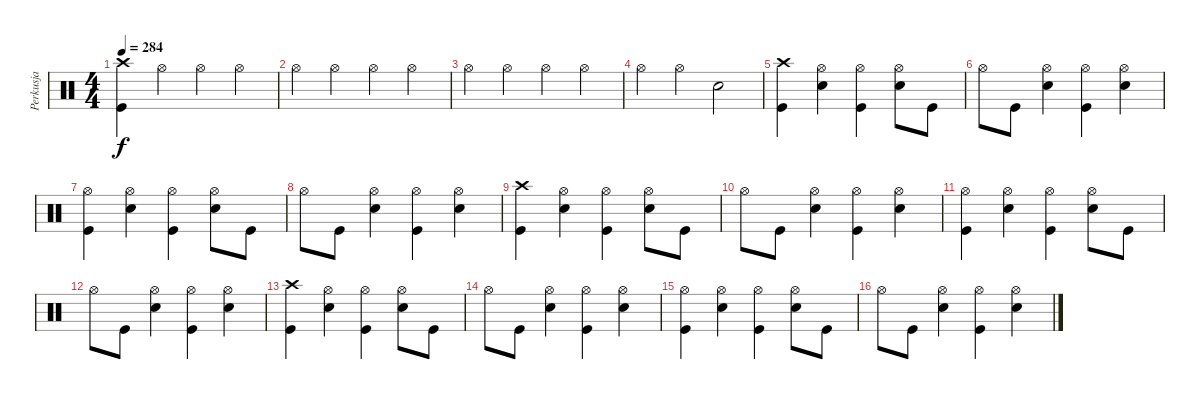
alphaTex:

\track ("Perkusja" "Perkusja") {instrument percussion}
\staff {score}
\articulation defaults
\ts (4 4)
\tempo 284
\clef neutral
\ks c
("Kick (hit)" "Crash high (hit)").4{dy f} "Hi-Hat (open)".4 "Hi-Hat (open)".4 "Hi-Hat (open)".4 |
"Hi-Hat (open)".4 "Hi-Hat (open)".4 "Hi-Hat (open)".4 "Hi-Hat (open)".4 |
"Hi-Hat (open)".4 "Hi-Hat (open)".4 "Hi-Hat (open)".4 "Hi-Hat (open)".4 |
"Hi-Hat (open)".4 "Hi-Hat (open)".4 "Snare (hit) 2".2 |
("Kick (hit)" "Crash high (hit)").4 ("Hi-Hat (open)" "Snare (hit) 2").4 ("Hi-Hat (open)" "Kick (hit)").4 ("Hi-Hat (open)" "Snare (hit) 2").8 "Kick (hit)".8 |
"Hi-Hat (open)".8 "Kick (hit)".8 ("Hi-Hat (open)" "Snare (hit) 2").4 ("Hi-Hat (open)" "Kick (hit)").4 ("Hi-Hat (open)" "Snare (hit) 2").4 |
("Hi-Hat (open)" "Kick (hit)").4 ("Hi-Hat (open)" "Snare (hit) 2").4 ("Hi-Hat (open)" "Kick (hit)").4 ("Hi-Hat (open)" "Snare (hit) 2").8 "Kick (hit)".8 |
"Hi-Hat (open)".8 "Kick (hit)".8 ("Hi-Hat (open)" "Snare (hit) 2").4 ("Hi-Hat (open)" "Kick (hit)").4 ("Hi-Hat (open)" "Snare (hit) 2").4 |
("Kick (hit)" "Crash high (hit)").4 ("Hi-Hat (open)" "Snare (hit) 2").4 ("Hi-Hat (open)" "Kick (hit)").4 ("Hi-Hat (open)" "Snare (hit) 2").8 "Kick (hit)".8 |
"Hi-Hat (open)".8 "Kick (hit)".8 ("Hi-Hat (open)" "Snare (hit) 2").4 ("Hi-Hat (open)" "Kick (hit)").4 ("Hi-Hat (open)" "Snare (hit) 2").4 |
("Hi-Hat (open)" "Kick (hit)").4 ("Hi-Hat (open)" "Snare (hit) 2").4 ("Hi-Hat (open)" "Kick (hit)").4 ("Hi-Hat (open)" "Snare (hit) 2").8 "Kick (hit)".8 |
"Hi-Hat (open)".8 "Kick (hit)".8 ("Hi-Hat (open)" "Snare (hit) 2").4 ("Hi-Hat (open)" "Kick (hit)").4 ("Hi-Hat (open)" "Snare (hit) 2").4 |
("Kick (hit)" "Crash high (hit)").4 ("Hi-Hat (open)" "Snare (hit) 2").4 ("Hi-Hat (open)" "Kick (hit)").4 ("Hi-Hat (open)" "Snare (hit) 2").8 "Kick (hit)".8 |
"Hi-Hat (open)".8 "Kick (hit)".8 ("Hi-Hat (open)" "Snare (hit) 2").4 ("Hi-Hat (open)" "Kick (hit)").4 ("Hi-Hat (open)" "Snare (hit) 2").4 |
("Hi-Hat (open)" "Kick (hit)").4 ("Hi-Hat (open)" "Snare (hit) 2").4 ("Hi-Hat (open)" "Kick (hit)").4 ("Hi-Hat (open)" "Snare (hit) 2").8 "Kick (hit)".8 |
"Hi-Hat (open)".8 "Kick (hit)".8 ("Hi-Hat (open)" "Snare (hit) 2").4 ("Hi-Hat (open)" "Kick (hit)").4 ("Hi-Hat (open)" "Snare (hit) 2").4
